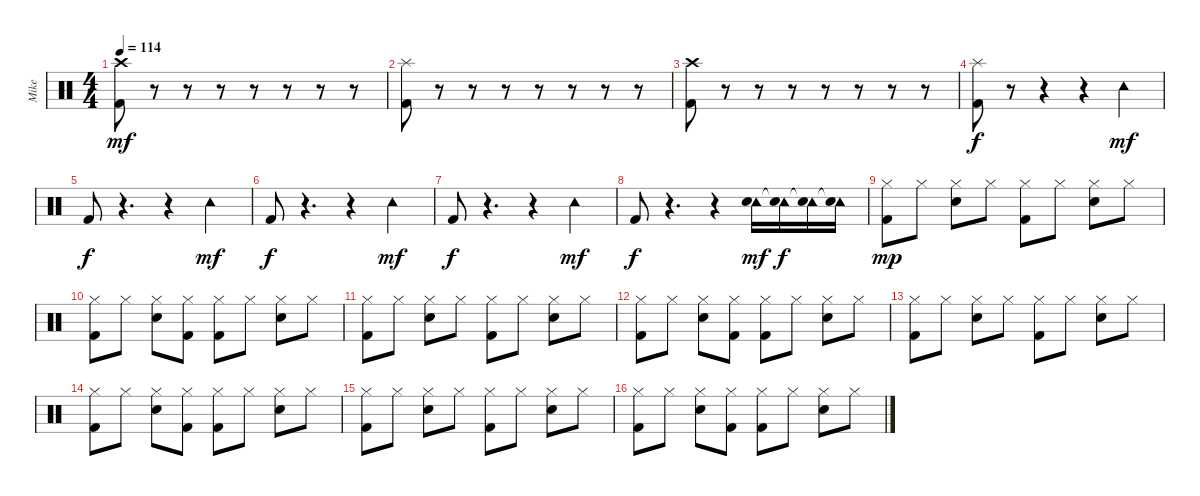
\track ("Mike" "Mike") {instrument percussion}
\staff {score}
\articulation defaults
\ts (4 4)
\tempo 114
\clef neutral
\ks c
("Crash high (hit)" "Kick (hit) 2").8{dy mf} r.8 r.8 r.8 r.8 r.8 r.8 r.8 |
("Splash (hit)" "Kick (hit) 2").8 r.8 r.8 r.8 r.8 r.8 r.8 r.8 |
("Crash high (hit)" "Kick (hit) 2").8 r.8 r.8 r.8 r.8 r.8 r.8 r.8 |
("Splash (hit)" "Kick (hit) 2").8{dy f} r.8 r.4 r.4 "Tambourine (hit)".4{dy mf} |
"Kick (hit) 2".8{dy f} r.4{d} r.4 "Tambourine (hit)".4{dy mf} |
"Kick (hit) 2".8{dy f} r.4{d} r.4 "Tambourine (hit)".4{dy mf} |
"Kick (hit) 2".8{dy f} r.4{d} r.4 "Tambourine (hit)".4{dy mf} |
"Kick (hit) 2".8{dy f} r.4{d} r.4 ("Tambourine (hit)" "Electric Snare (hit)").16{dy mf} ("Tambourine (hit)"{t} "Electric Snare (hit)").16{dy f} ("Tambourine (hit)"{t} "Electric Snare (hit)").16 ("Tambourine (hit)"{t} "Electric Snare (hit)").16 |
("Hi-Hat (closed)" "Kick (hit) 2").8{dy mp} "Hi-Hat (closed)".8 ("Hi-Hat (closed)" "Electric Snare (hit)").8 "Hi-Hat (closed)".8 ("Hi-Hat (closed)" "Kick (hit) 2").8 "Hi-Hat (closed)".8 ("Hi-Hat (closed)" "Electric Snare (hit)").8 "Hi-Hat (closed)".8 |
("Hi-Hat (closed)" "Kick (hit) 2").8 "Hi-Hat (closed)".8 ("Hi-Hat (closed)" "Electric Snare (hit)").8 ("Hi-Hat (closed)" "Kick (hit) 2").8 ("Hi-Hat (closed)" "Kick (hit) 2").8 "Hi-Hat (closed)".8 ("Hi-Hat (closed)" "Electric Snare (hit)").8 "Hi-Hat (closed)".8 |
("Hi-Hat (closed)" "Kick (hit) 2").8 "Hi-Hat (closed)".8 ("Hi-Hat (closed)" "Electric Snare (hit)").8 "Hi-Hat (closed)".8 ("Hi-Hat (closed)" "Kick (hit) 2").8 "Hi-Hat (closed)".8 ("Hi-Hat (closed)" "Electric Snare (hit)").8 "Hi-Hat (closed)".8 |
("Hi-Hat (closed)" "Kick (hit) 2").8 "Hi-Hat (closed)".8 ("Hi-Hat (closed)" "Electric Snare (hit)").8 ("Hi-Hat (closed)" "Kick (hit) 2").8 ("Hi-Hat (closed)" "Kick (hit) 2").8 "Hi-Hat (closed)".8 ("Hi-Hat (closed)" "Electric Snare (hit)").8 "Hi-Hat (closed)".8 |
("Hi-Hat (closed)" "Kick (hit) 2").8 "Hi-Hat (closed)".8 ("Hi-Hat (closed)" "Electric Snare (hit)").8 "Hi-Hat (closed)".8 ("Hi-Hat (closed)" "Kick (hit) 2").8 "Hi-Hat (closed)".8 ("Hi-Hat (closed)" "Electric Snare (hit)").8 "Hi-Hat (closed)".8 |
("Hi-Hat (closed)" "Kick (hit) 2").8 "Hi-Hat (closed)".8 ("Hi-Hat (closed)" "Electric Snare (hit)").8 ("Hi-Hat (closed)" "Kick (hit) 2").8 ("Hi-Hat (closed)" "Kick (hit) 2").8 "Hi-Hat (closed)".8 ("Hi-Hat (closed)" "Electric Snare (hit)").8 "Hi-Hat (closed)".8 |
("Hi-Hat (closed)" "Kick (hit) 2").8 "Hi-Hat (closed)".8 ("Hi-Hat (closed)" "Electric Snare (hit)").8 "Hi-Hat (closed)".8 ("Hi-Hat (closed)" "Kick (hit) 2").8 "Hi-Hat (closed)".8 ("Hi-Hat (closed)" "Electric Snare (hit)").8 "Hi-Hat (closed)".8 |
("Hi-Hat (closed)" "Kick (hit) 2").8 "Hi-Hat (closed)".8 ("Hi-Hat (closed)" "Electric Snare (hit)").8 ("Hi-Hat (closed)" "Kick (hit) 2").8 ("Hi-Hat (closed)" "Kick (hit) 2").8 "Hi-Hat (closed)".8 ("Hi-Hat (closed)" "Electric Snare (hit)").8 "Hi-Hat (closed)".8
